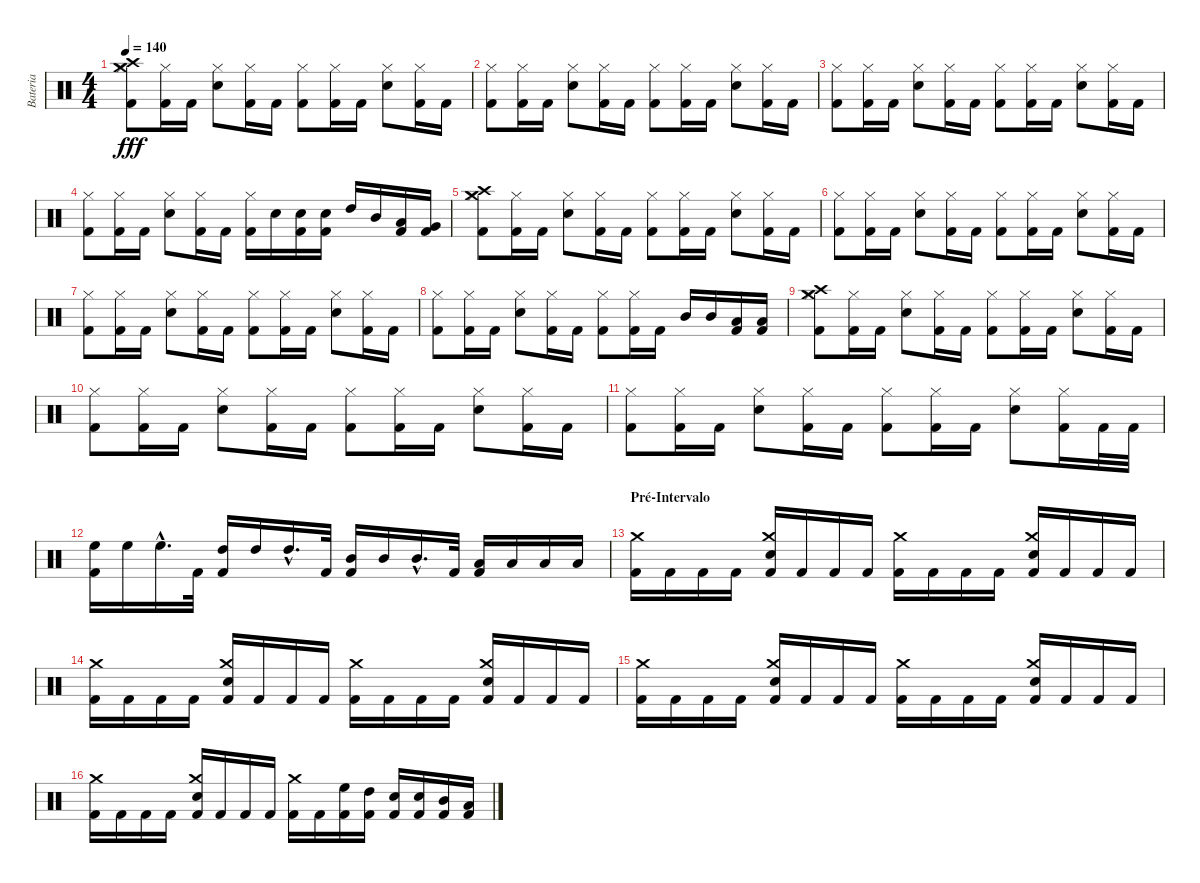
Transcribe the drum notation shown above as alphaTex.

\track ("Bateria" "Bateria") {instrument percussion}
\staff {score}
\articulation defaults
\ts (4 4)
\tempo 140
\clef neutral
\ks c
("Hi-Hat (closed)" "Kick (hit) 2" "Crash medium (hit)" "Crash high (hit)").8{dy fff} ("Hi-Hat (closed)" "Kick (hit) 2").16 "Kick (hit) 2".16 ("Hi-Hat (closed)" "Electric Snare (hit)").8 ("Hi-Hat (closed)" "Kick (hit) 2").16 "Kick (hit) 2".16 ("Hi-Hat (closed)" "Kick (hit) 2").8 ("Hi-Hat (closed)" "Kick (hit) 2").16 "Kick (hit) 2".16 ("Hi-Hat (closed)" "Electric Snare (hit)").8 ("Hi-Hat (closed)" "Kick (hit) 2").16 "Kick (hit) 2".16 |
("Hi-Hat (closed)" "Kick (hit) 2").8 ("Hi-Hat (closed)" "Kick (hit) 2").16 "Kick (hit) 2".16 ("Hi-Hat (closed)" "Electric Snare (hit)").8 ("Hi-Hat (closed)" "Kick (hit) 2").16 "Kick (hit) 2".16 ("Hi-Hat (closed)" "Kick (hit) 2").8 ("Hi-Hat (closed)" "Kick (hit) 2").16 "Kick (hit) 2".16 ("Hi-Hat (closed)" "Electric Snare (hit)").8 ("Hi-Hat (closed)" "Kick (hit) 2").16 "Kick (hit) 2".16 |
("Hi-Hat (closed)" "Kick (hit) 2").8 ("Hi-Hat (closed)" "Kick (hit) 2").16 "Kick (hit) 2".16 ("Hi-Hat (closed)" "Electric Snare (hit)").8 ("Hi-Hat (closed)" "Kick (hit) 2").16 "Kick (hit) 2".16 ("Hi-Hat (closed)" "Kick (hit) 2").8 ("Hi-Hat (closed)" "Kick (hit) 2").16 "Kick (hit) 2".16 ("Hi-Hat (closed)" "Electric Snare (hit)").8 ("Hi-Hat (closed)" "Kick (hit) 2").16 "Kick (hit) 2".16 |
("Hi-Hat (closed)" "Kick (hit) 2").8 ("Hi-Hat (closed)" "Kick (hit) 2").16 "Kick (hit) 2".16 ("Hi-Hat (closed)" "Electric Snare (hit)").8 ("Hi-Hat (closed)" "Kick (hit) 2").16 "Kick (hit) 2".16 ("Hi-Hat (closed)" "Kick (hit) 2").16 "Electric Snare (hit)".16 ("Kick (hit) 2" "Electric Snare (hit)").16 ("Kick (hit) 2" "Electric Snare (hit)").16 "High Tom (hit)".16 "Mid Tom (hit)".16 ("Kick (hit) 2" "Low Tom (hit)").16 ("Kick (hit) 2" "Very Low Tom (hit)").16 |
("Hi-Hat (closed)" "Kick (hit) 2" "Crash medium (hit)" "Crash high (hit)").8 ("Hi-Hat (closed)" "Kick (hit) 2").16 "Kick (hit) 2".16 ("Hi-Hat (closed)" "Electric Snare (hit)").8 ("Hi-Hat (closed)" "Kick (hit) 2").16 "Kick (hit) 2".16 ("Hi-Hat (closed)" "Kick (hit) 2").8 ("Hi-Hat (closed)" "Kick (hit) 2").16 "Kick (hit) 2".16 ("Hi-Hat (closed)" "Electric Snare (hit)").8 ("Hi-Hat (closed)" "Kick (hit) 2").16 "Kick (hit) 2".16 |
("Hi-Hat (closed)" "Kick (hit) 2").8 ("Hi-Hat (closed)" "Kick (hit) 2").16 "Kick (hit) 2".16 ("Hi-Hat (closed)" "Electric Snare (hit)").8 ("Hi-Hat (closed)" "Kick (hit) 2").16 "Kick (hit) 2".16 ("Hi-Hat (closed)" "Kick (hit) 2").8 ("Hi-Hat (closed)" "Kick (hit) 2").16 "Kick (hit) 2".16 ("Hi-Hat (closed)" "Electric Snare (hit)").8 ("Hi-Hat (closed)" "Kick (hit) 2").16 "Kick (hit) 2".16 |
("Hi-Hat (closed)" "Kick (hit) 2").8 ("Hi-Hat (closed)" "Kick (hit) 2").16 "Kick (hit) 2".16 ("Hi-Hat (closed)" "Electric Snare (hit)").8 ("Hi-Hat (closed)" "Kick (hit) 2").16 "Kick (hit) 2".16 ("Hi-Hat (closed)" "Kick (hit) 2").8 ("Hi-Hat (closed)" "Kick (hit) 2").16 "Kick (hit) 2".16 ("Hi-Hat (closed)" "Electric Snare (hit)").8 ("Hi-Hat (closed)" "Kick (hit) 2").16 "Kick (hit) 2".16 |
("Hi-Hat (closed)" "Kick (hit) 2").8 ("Hi-Hat (closed)" "Kick (hit) 2").16 "Kick (hit) 2".16 ("Hi-Hat (closed)" "Electric Snare (hit)").8 ("Hi-Hat (closed)" "Kick (hit) 2").16 "Kick (hit) 2".16 ("Hi-Hat (closed)" "Kick (hit) 2").8 ("Hi-Hat (closed)" "Kick (hit) 2").16 "Kick (hit) 2".16 "Mid Tom (hit)".16 "Mid Tom (hit)".16 ("Kick (hit) 2" "Low Tom (hit)").16 ("Kick (hit) 2" "Low Tom (hit)").16 |
("Hi-Hat (closed)" "Kick (hit) 2" "Crash medium (hit)" "Crash high (hit)").8 ("Hi-Hat (closed)" "Kick (hit) 2").16 "Kick (hit) 2".16 ("Hi-Hat (closed)" "Electric Snare (hit)").8 ("Hi-Hat (closed)" "Kick (hit) 2").16 "Kick (hit) 2".16 ("Hi-Hat (closed)" "Kick (hit) 2").8 ("Hi-Hat (closed)" "Kick (hit) 2").16 "Kick (hit) 2".16 ("Hi-Hat (closed)" "Electric Snare (hit)").8 ("Hi-Hat (closed)" "Kick (hit) 2").16 "Kick (hit) 2".16 |
("Hi-Hat (closed)" "Kick (hit) 2").8 ("Hi-Hat (closed)" "Kick (hit) 2").16 "Kick (hit) 2".16 ("Hi-Hat (closed)" "Electric Snare (hit)").8 ("Hi-Hat (closed)" "Kick (hit) 2").16 "Kick (hit) 2".16 ("Hi-Hat (closed)" "Kick (hit) 2").8 ("Hi-Hat (closed)" "Kick (hit) 2").16 "Kick (hit) 2".16 ("Hi-Hat (closed)" "Electric Snare (hit)").8 ("Hi-Hat (closed)" "Kick (hit) 2").16 "Kick (hit) 2".16 |
("Hi-Hat (closed)" "Kick (hit) 2").8 ("Hi-Hat (closed)" "Kick (hit) 2").16 "Kick (hit) 2".16 ("Hi-Hat (closed)" "Electric Snare (hit)").8 ("Hi-Hat (closed)" "Kick (hit) 2").16 "Kick (hit) 2".16 ("Hi-Hat (closed)" "Kick (hit) 2").8 ("Hi-Hat (closed)" "Kick (hit) 2").16 "Kick (hit) 2".16 ("Hi-Hat (closed)" "Electric Snare (hit)").8 ("Hi-Hat (closed)" "Kick (hit) 2").16 "Kick (hit) 2".32 "Kick (hit) 2".32 |
("Kick (hit) 2" "High Floor Tom (hit)").16 "High Floor Tom (hit)".16 "High Floor Tom (hit)"{hac}.16{d} "Kick (hit) 2".32 ("Kick (hit) 2" "High Tom (hit)").16 "High Tom (hit)".16 "High Tom (hit)"{hac}.16{d} "Kick (hit) 2".32 ("Kick (hit) 2" "Mid Tom (hit)").16 "Mid Tom (hit)".16 "Mid Tom (hit)"{hac}.16{d} "Kick (hit) 2".32 ("Kick (hit) 2" "Low Tom (hit)").16 "Low Tom (hit)".16 "Low Tom (hit)".16 "Low Tom (hit)".16 |
\section ("" "Pré-Intervalo")
("Kick (hit) 2" "Crash medium (hit)").16 "Kick (hit) 2".16 "Kick (hit) 2".16 "Kick (hit) 2".16 ("Kick (hit) 2" "Metronome (bell)" "Crash medium (hit)").16 "Kick (hit) 2".16 "Kick (hit) 2".16 "Kick (hit) 2".16 ("Kick (hit) 2" "Crash medium (hit)").16 "Kick (hit) 2".16 "Kick (hit) 2".16 "Kick (hit) 2".16 ("Kick (hit) 2" "Metronome (bell)" "Crash medium (hit)").16 "Kick (hit) 2".16 "Kick (hit) 2".16 "Kick (hit) 2".16 |
("Kick (hit) 2" "Crash medium (hit)").16 "Kick (hit) 2".16 "Kick (hit) 2".16 "Kick (hit) 2".16 ("Kick (hit) 2" "Metronome (bell)" "Crash medium (hit)").16 "Kick (hit) 2".16 "Kick (hit) 2".16 "Kick (hit) 2".16 ("Kick (hit) 2" "Crash medium (hit)").16 "Kick (hit) 2".16 "Kick (hit) 2".16 "Kick (hit) 2".16 ("Kick (hit) 2" "Metronome (bell)" "Crash medium (hit)").16 "Kick (hit) 2".16 "Kick (hit) 2".16 "Kick (hit) 2".16 |
("Kick (hit) 2" "Crash medium (hit)").16 "Kick (hit) 2".16 "Kick (hit) 2".16 "Kick (hit) 2".16 ("Kick (hit) 2" "Metronome (bell)" "Crash medium (hit)").16 "Kick (hit) 2".16 "Kick (hit) 2".16 "Kick (hit) 2".16 ("Kick (hit) 2" "Crash medium (hit)").16 "Kick (hit) 2".16 "Kick (hit) 2".16 "Kick (hit) 2".16 ("Kick (hit) 2" "Metronome (bell)" "Crash medium (hit)").16 "Kick (hit) 2".16 "Kick (hit) 2".16 "Kick (hit) 2".16 |
("Kick (hit) 2" "Crash medium (hit)").16 "Kick (hit) 2".16 "Kick (hit) 2".16 "Kick (hit) 2".16 ("Kick (hit) 2" "Metronome (bell)" "Crash medium (hit)").16 "Kick (hit) 2".16 "Kick (hit) 2".16 "Kick (hit) 2".16 ("Kick (hit) 2" "Crash medium (hit)").16 "Kick (hit) 2".16 ("Kick (hit) 2" "High Floor Tom (hit)").16 ("Kick (hit) 2" "High Tom (hit)").16 ("Kick (hit) 2" "Metronome (bell)").16 ("Kick (hit) 2" "Metronome (bell)").16 ("Kick (hit) 2" "Mid Tom (hit)").16 ("Kick (hit) 2" "Low Tom (hit)").16
